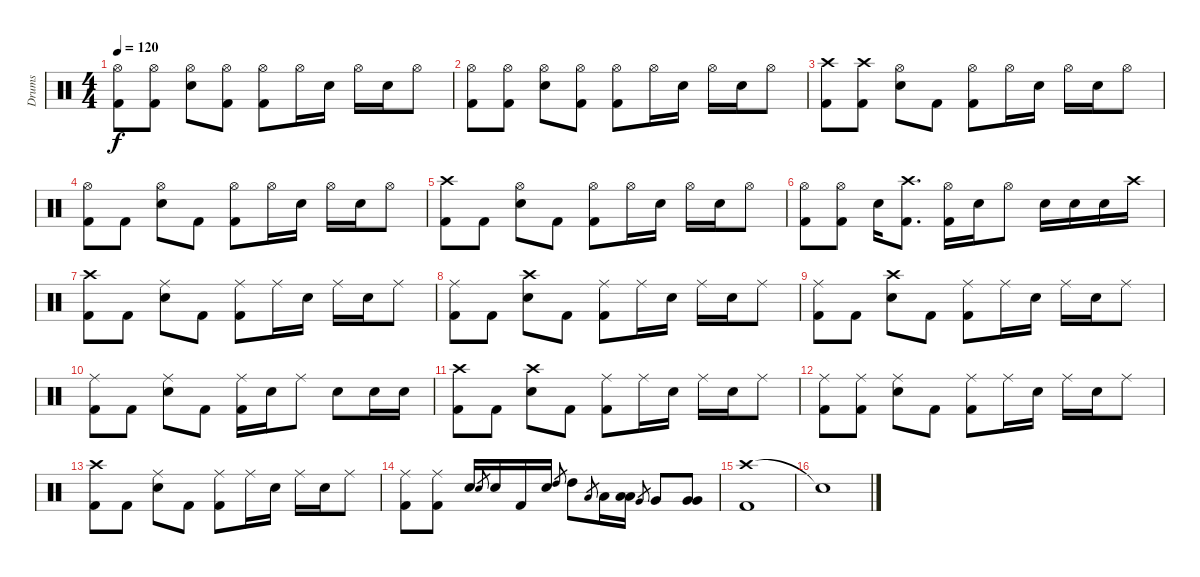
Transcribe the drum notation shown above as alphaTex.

\track ("Drums" "Drums") {instrument percussion}
\staff {score}
\articulation defaults
\ts (4 4)
\tempo 120
\clef neutral
\ks c
("Hi-Hat (open)" "Kick (hit) 2").8{dy f} ("Hi-Hat (open)" "Kick (hit) 2").8 ("Hi-Hat (open)" "Electric Snare (hit)").8 ("Hi-Hat (open)" "Kick (hit) 2").8 ("Hi-Hat (open)" "Kick (hit) 2").8 "Hi-Hat (open)".16 "Electric Snare (hit)".16 "Hi-Hat (open)".16 "Electric Snare (hit)".16 "Hi-Hat (open)".8 |
("Hi-Hat (open)" "Kick (hit) 2").8 ("Hi-Hat (open)" "Kick (hit) 2").8 ("Hi-Hat (open)" "Electric Snare (hit)").8 ("Hi-Hat (open)" "Kick (hit) 2").8 ("Hi-Hat (open)" "Kick (hit) 2").8 "Hi-Hat (open)".16 "Electric Snare (hit)".16 "Hi-Hat (open)".16 "Electric Snare (hit)".16 "Hi-Hat (open)".8 |
("Crash high (hit)" "Kick (hit) 2").8 ("Crash high (hit)" "Kick (hit) 2").8 ("Hi-Hat (open)" "Electric Snare (hit)").8 "Kick (hit) 2".8 ("Hi-Hat (open)" "Kick (hit) 2").8 "Hi-Hat (open)".16 "Electric Snare (hit)".16 "Hi-Hat (open)".16 "Electric Snare (hit)".16 "Hi-Hat (open)".8 |
("Hi-Hat (open)" "Kick (hit) 2").8 "Kick (hit) 2".8 ("Hi-Hat (open)" "Electric Snare (hit)").8 "Kick (hit) 2".8 ("Hi-Hat (open)" "Kick (hit) 2").8 "Hi-Hat (open)".16 "Electric Snare (hit)".16 "Hi-Hat (open)".16 "Electric Snare (hit)".16 "Hi-Hat (open)".8 |
("Crash high (hit)" "Kick (hit) 2").8 "Kick (hit) 2".8 ("Hi-Hat (open)" "Electric Snare (hit)").8 "Kick (hit) 2".8 ("Hi-Hat (open)" "Kick (hit) 2").8 "Hi-Hat (open)".16 "Electric Snare (hit)".16 "Hi-Hat (open)".16 "Electric Snare (hit)".16 "Hi-Hat (open)".8 |
("Hi-Hat (open)" "Kick (hit) 2").8 ("Hi-Hat (open)" "Kick (hit) 2").8 "Electric Snare (hit)".16 ("Crash high (hit)" "Kick (hit) 2").8{d} ("Hi-Hat (open)" "Kick (hit) 2").16 "Electric Snare (hit)".16 "Hi-Hat (open)".8 "Electric Snare (hit)".16 "Electric Snare (hit)".16 "Electric Snare (hit)".16 "Crash high (hit)".16 |
("Crash high (hit)" "Kick (hit) 2").8 "Kick (hit) 2".8 ("Ride (middle)" "Electric Snare (hit)").8 "Kick (hit) 2".8 ("Ride (middle)" "Kick (hit) 2").8 "Ride (middle)".16 "Electric Snare (hit)".16 "Ride (middle)".16 "Electric Snare (hit)".16 "Ride (middle)".8 |
("Ride (middle)" "Kick (hit) 2").8 "Kick (hit) 2".8 ("Crash high (hit)" "Electric Snare (hit)").8 "Kick (hit) 2".8 ("Ride (middle)" "Kick (hit) 2").8 "Ride (middle)".16 "Electric Snare (hit)".16 "Ride (middle)".16 "Electric Snare (hit)".16 "Ride (middle)".8 |
("Ride (middle)" "Kick (hit) 2").8 "Kick (hit) 2".8 ("Crash high (hit)" "Electric Snare (hit)").8 "Kick (hit) 2".8 ("Ride (middle)" "Kick (hit) 2").8 "Ride (middle)".16 "Electric Snare (hit)".16 "Ride (middle)".16 "Electric Snare (hit)".16 "Ride (middle)".8 |
("Ride (middle)" "Kick (hit) 2").8 "Kick (hit) 2".8 ("Ride (middle)" "Electric Snare (hit)").8 "Kick (hit) 2".8 ("Ride (middle)" "Kick (hit) 2").16 "Electric Snare (hit)".16 "Ride (middle)".8 "Electric Snare (hit)".8 "Electric Snare (hit)".16 "Electric Snare (hit)".16 |
("Crash high (hit)" "Kick (hit) 2").8 "Kick (hit) 2".8 ("Crash high (hit)" "Electric Snare (hit)").8 "Kick (hit) 2".8 ("Ride (middle)" "Kick (hit) 2").8 "Ride (middle)".16 "Electric Snare (hit)".16 "Ride (middle)".16 "Electric Snare (hit)".16 "Ride (middle)".8 |
("Ride (middle)" "Kick (hit) 2").8 ("Ride (middle)" "Kick (hit) 2").8 ("Ride (middle)" "Electric Snare (hit)").8 "Kick (hit) 2".8 ("Ride (middle)" "Kick (hit) 2").8 "Ride (middle)".16 "Electric Snare (hit)".16 "Ride (middle)".16 "Electric Snare (hit)".16 "Ride (middle)".8 |
("Crash high (hit)" "Kick (hit) 2").8 "Kick (hit) 2".8 ("Ride (middle)" "Electric Snare (hit)").8 "Kick (hit) 2".8 ("Ride (middle)" "Kick (hit) 2").8 "Ride (middle)".16 "Electric Snare (hit)".16 "Ride (middle)".16 "Electric Snare (hit)".16 "Ride (middle)".8 |
("Ride (middle)" "Kick (hit) 2").8 ("Ride (middle)" "Kick (hit) 2").8 "Electric Snare (hit)".16 "Electric Snare (hit)".8{gr} "Electric Snare (hit)".16 "Kick (hit) 2".16 "Electric Snare (hit)".16 "High Tom (hit)".8{gr} "High Tom (hit)".8 "Low Tom (hit)".8{gr} "Low Tom (hit)".16 ("Low Tom (hit)" "Low Tom (hit)").16 "Very Low Tom (hit)".8{gr} "Very Low Tom (hit)".8 ("Very Low Tom (hit)" "Very Low Tom (hit)").8 |
("Crash high (hit)" "Kick (hit) 2").1 |
"Snare (hit)"{t}.1
